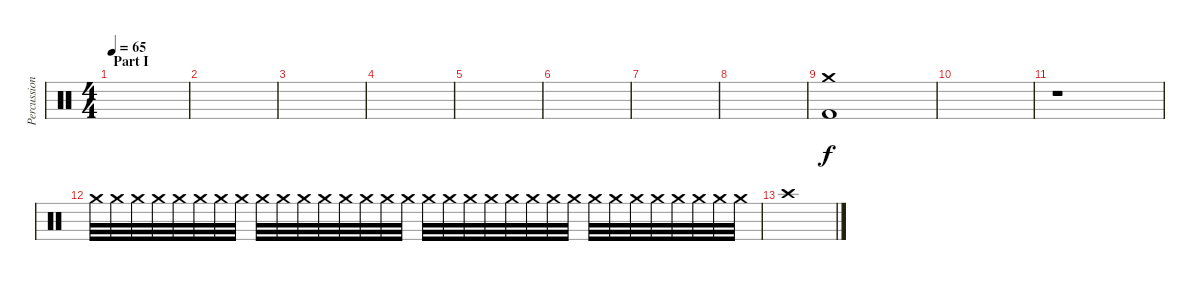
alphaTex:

\track ("Percussion" "Percussion") {instrument percussion}
\staff {score}
\articulation defaults
\ts (4 4)
\section ("" "Part I")
\tempo 65
\clef neutral
\ks c
|
|
|
|
|
|
|
|
("Crash medium (hit)" "Kick (hit) 2").1 |
|
r.1{volume 0} |
"Crash medium (hit)".32{volume 15} "Crash medium (hit)".32 "Crash medium (hit)".32 "Crash medium (hit)".32 "Crash medium (hit)".32 "Crash medium (hit)".32 "Crash medium (hit)".32 "Crash medium (hit)".32 "Crash medium (hit)".32 "Crash medium (hit)".32 "Crash medium (hit)".32 "Crash medium (hit)".32 "Crash medium (hit)".32 "Crash medium (hit)".32 "Crash medium (hit)".32 "Crash medium (hit)".32 "Crash medium (hit)".32 "Crash medium (hit)".32 "Crash medium (hit)".32 "Crash medium (hit)".32 "Crash medium (hit)".32 "Crash medium (hit)".32 "Crash medium (hit)".32 "Crash medium (hit)".32 "Crash medium (hit)".32 "Crash medium (hit)".32 "Crash medium (hit)".32 "Crash medium (hit)".32 "Crash medium (hit)".32 "Crash medium (hit)".32 "Crash medium (hit)".32 "Crash medium (hit)".32 |
"Crash high (hit)".1
